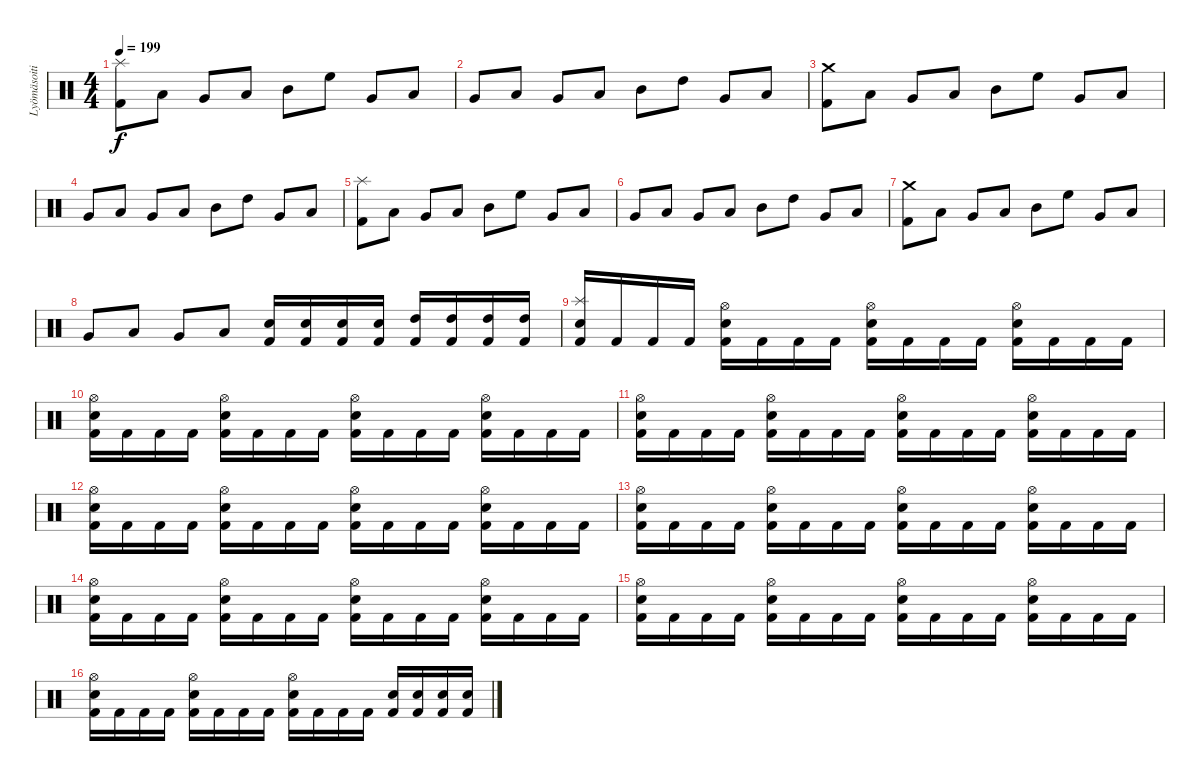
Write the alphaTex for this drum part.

\track ("Lyömäsoitin" "Lyömäsoiti") {instrument percussion}
\staff {score}
\articulation defaults
\ts (4 4)
\tempo 199
\clef neutral
\ks c
("Kick (hit) 2" "Splash (hit)").8{dy f} "Low Tom (hit)".8 "Very Low Tom (hit)".8 "Low Tom (hit)".8 "Mid Tom (hit)".8 "High Floor Tom (hit)".8 "Very Low Tom (hit)".8 "Low Tom (hit)".8 |
"Very Low Tom (hit)".8 "Low Tom (hit)".8 "Very Low Tom (hit)".8 "Low Tom (hit)".8 "Mid Tom (hit)".8 "High Tom (hit)".8 "Very Low Tom (hit)".8 "Low Tom (hit)".8 |
("Kick (hit) 2" "Crash medium (hit)").8 "Low Tom (hit)".8 "Very Low Tom (hit)".8 "Low Tom (hit)".8 "Mid Tom (hit)".8 "High Floor Tom (hit)".8 "Very Low Tom (hit)".8 "Low Tom (hit)".8 |
"Very Low Tom (hit)".8 "Low Tom (hit)".8 "Very Low Tom (hit)".8 "Low Tom (hit)".8 "Mid Tom (hit)".8 "High Tom (hit)".8 "Very Low Tom (hit)".8 "Low Tom (hit)".8 |
("Kick (hit) 2" "Splash (hit)").8 "Low Tom (hit)".8 "Very Low Tom (hit)".8 "Low Tom (hit)".8 "Mid Tom (hit)".8 "High Floor Tom (hit)".8 "Very Low Tom (hit)".8 "Low Tom (hit)".8 |
"Very Low Tom (hit)".8 "Low Tom (hit)".8 "Very Low Tom (hit)".8 "Low Tom (hit)".8 "Mid Tom (hit)".8 "High Tom (hit)".8 "Very Low Tom (hit)".8 "Low Tom (hit)".8 |
("Kick (hit) 2" "Crash medium (hit)").8 "Low Tom (hit)".8 "Very Low Tom (hit)".8 "Low Tom (hit)".8 "Mid Tom (hit)".8 "High Floor Tom (hit)".8 "Very Low Tom (hit)".8 "Low Tom (hit)".8 |
"Very Low Tom (hit)".8 "Low Tom (hit)".8 "Very Low Tom (hit)".8 "Low Tom (hit)".8 ("Kick (hit) 2" "Snare (hit) 2").16 ("Kick (hit) 2" "Snare (hit) 2").16 ("Kick (hit) 2" "Snare (hit) 2").16 ("Kick (hit) 2" "Snare (hit) 2").16 ("Kick (hit) 2" "High Tom (hit)").16 ("Kick (hit) 2" "High Tom (hit)").16 ("Kick (hit) 2" "High Tom (hit)").16 ("Kick (hit) 2" "High Tom (hit)").16 |
("Kick (hit) 2" "Splash (hit)" "Snare (hit) 2").16 "Kick (hit) 2".16 "Kick (hit) 2".16 "Kick (hit) 2".16 ("Kick (hit) 2" "Hi-Hat (open)" "Snare (hit) 2").16 "Kick (hit) 2".16 "Kick (hit) 2".16 "Kick (hit) 2".16 ("Kick (hit) 2" "Hi-Hat (open)" "Snare (hit) 2").16 "Kick (hit) 2".16 "Kick (hit) 2".16 "Kick (hit) 2".16 ("Kick (hit) 2" "Hi-Hat (open)" "Snare (hit) 2").16 "Kick (hit) 2".16 "Kick (hit) 2".16 "Kick (hit) 2".16 |
("Kick (hit) 2" "Hi-Hat (open)" "Snare (hit) 2").16 "Kick (hit) 2".16 "Kick (hit) 2".16 "Kick (hit) 2".16 ("Kick (hit) 2" "Hi-Hat (open)" "Snare (hit) 2").16 "Kick (hit) 2".16 "Kick (hit) 2".16 "Kick (hit) 2".16 ("Kick (hit) 2" "Hi-Hat (open)" "Snare (hit) 2").16 "Kick (hit) 2".16 "Kick (hit) 2".16 "Kick (hit) 2".16 ("Kick (hit) 2" "Hi-Hat (open)" "Snare (hit) 2").16 "Kick (hit) 2".16 "Kick (hit) 2".16 "Kick (hit) 2".16 |
("Kick (hit) 2" "Hi-Hat (open)" "Snare (hit) 2").16 "Kick (hit) 2".16 "Kick (hit) 2".16 "Kick (hit) 2".16 ("Kick (hit) 2" "Hi-Hat (open)" "Snare (hit) 2").16 "Kick (hit) 2".16 "Kick (hit) 2".16 "Kick (hit) 2".16 ("Kick (hit) 2" "Hi-Hat (open)" "Snare (hit) 2").16 "Kick (hit) 2".16 "Kick (hit) 2".16 "Kick (hit) 2".16 ("Kick (hit) 2" "Hi-Hat (open)" "Snare (hit) 2").16 "Kick (hit) 2".16 "Kick (hit) 2".16 "Kick (hit) 2".16 |
("Kick (hit) 2" "Hi-Hat (open)" "Snare (hit) 2").16 "Kick (hit) 2".16 "Kick (hit) 2".16 "Kick (hit) 2".16 ("Kick (hit) 2" "Hi-Hat (open)" "Snare (hit) 2").16 "Kick (hit) 2".16 "Kick (hit) 2".16 "Kick (hit) 2".16 ("Kick (hit) 2" "Hi-Hat (open)" "Snare (hit) 2").16 "Kick (hit) 2".16 "Kick (hit) 2".16 "Kick (hit) 2".16 ("Kick (hit) 2" "Hi-Hat (open)" "Snare (hit) 2").16 "Kick (hit) 2".16 "Kick (hit) 2".16 "Kick (hit) 2".16 |
("Kick (hit) 2" "Hi-Hat (open)" "Snare (hit) 2").16 "Kick (hit) 2".16 "Kick (hit) 2".16 "Kick (hit) 2".16 ("Kick (hit) 2" "Hi-Hat (open)" "Snare (hit) 2").16 "Kick (hit) 2".16 "Kick (hit) 2".16 "Kick (hit) 2".16 ("Kick (hit) 2" "Hi-Hat (open)" "Snare (hit) 2").16 "Kick (hit) 2".16 "Kick (hit) 2".16 "Kick (hit) 2".16 ("Kick (hit) 2" "Hi-Hat (open)" "Snare (hit) 2").16 "Kick (hit) 2".16 "Kick (hit) 2".16 "Kick (hit) 2".16 |
("Kick (hit) 2" "Hi-Hat (open)" "Snare (hit) 2").16 "Kick (hit) 2".16 "Kick (hit) 2".16 "Kick (hit) 2".16 ("Kick (hit) 2" "Hi-Hat (open)" "Snare (hit) 2").16 "Kick (hit) 2".16 "Kick (hit) 2".16 "Kick (hit) 2".16 ("Kick (hit) 2" "Hi-Hat (open)" "Snare (hit) 2").16 "Kick (hit) 2".16 "Kick (hit) 2".16 "Kick (hit) 2".16 ("Kick (hit) 2" "Hi-Hat (open)" "Snare (hit) 2").16 "Kick (hit) 2".16 "Kick (hit) 2".16 "Kick (hit) 2".16 |
("Kick (hit) 2" "Hi-Hat (open)" "Snare (hit) 2").16 "Kick (hit) 2".16 "Kick (hit) 2".16 "Kick (hit) 2".16 ("Kick (hit) 2" "Hi-Hat (open)" "Snare (hit) 2").16 "Kick (hit) 2".16 "Kick (hit) 2".16 "Kick (hit) 2".16 ("Kick (hit) 2" "Hi-Hat (open)" "Snare (hit) 2").16 "Kick (hit) 2".16 "Kick (hit) 2".16 "Kick (hit) 2".16 ("Kick (hit) 2" "Hi-Hat (open)" "Snare (hit) 2").16 "Kick (hit) 2".16 "Kick (hit) 2".16 "Kick (hit) 2".16 |
("Kick (hit) 2" "Hi-Hat (open)" "Snare (hit) 2").16 "Kick (hit) 2".16 "Kick (hit) 2".16 "Kick (hit) 2".16 ("Kick (hit) 2" "Hi-Hat (open)" "Snare (hit) 2").16 "Kick (hit) 2".16 "Kick (hit) 2".16 "Kick (hit) 2".16 ("Kick (hit) 2" "Hi-Hat (open)" "Snare (hit) 2").16 "Kick (hit) 2".16 "Kick (hit) 2".16 "Kick (hit) 2".16 ("Kick (hit) 2" "Snare (hit) 2").16 ("Kick (hit) 2" "Snare (hit) 2").16 ("Kick (hit) 2" "Snare (hit) 2").16 ("Kick (hit) 2" "Snare (hit) 2").16
